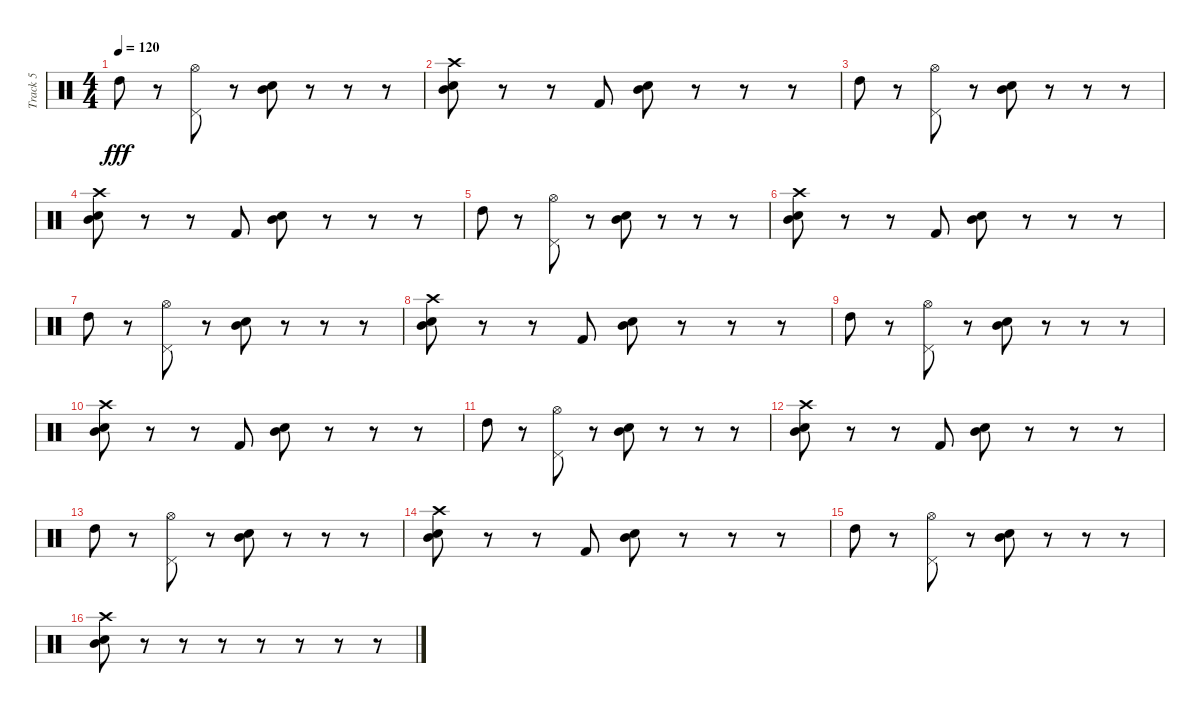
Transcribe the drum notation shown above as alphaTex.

\track ("Track 5" "Track 5") {instrument percussion}
\staff {score}
\articulation defaults
\ts (4 4)
\tempo 120
\clef neutral
\ks c "High Tom (hit)".8{dy fff}
r.8 ("Hi-Hat (open)" "Pedal Hi-Hat (hit)").8 r.8 ("Mid Tom (hit)" "Snare (hit) 2").8 r.8 r.8 r.8 |
("Crash high (hit)" "Mid Tom (hit)" "Snare (hit) 2").8 r.8 r.8 "Kick (hit) 2".8 ("Mid Tom (hit)" "Snare (hit) 2").8 r.8 r.8 r.8 |
"High Tom (hit)".8 r.8 ("Hi-Hat (open)" "Pedal Hi-Hat (hit)").8 r.8 ("Mid Tom (hit)" "Snare (hit) 2").8 r.8 r.8 r.8 |
("Crash high (hit)" "Mid Tom (hit)" "Snare (hit) 2").8 r.8 r.8 "Kick (hit) 2".8 ("Mid Tom (hit)" "Snare (hit) 2").8 r.8 r.8 r.8 |
"High Tom (hit)".8 r.8 ("Hi-Hat (open)" "Pedal Hi-Hat (hit)").8 r.8 ("Mid Tom (hit)" "Snare (hit) 2").8 r.8 r.8 r.8 |
("Crash high (hit)" "Mid Tom (hit)" "Snare (hit) 2").8 r.8 r.8 "Kick (hit) 2".8 ("Mid Tom (hit)" "Snare (hit) 2").8 r.8 r.8 r.8 |
"High Tom (hit)".8 r.8 ("Hi-Hat (open)" "Pedal Hi-Hat (hit)").8 r.8 ("Mid Tom (hit)" "Snare (hit) 2").8 r.8 r.8 r.8 |
("Crash high (hit)" "Mid Tom (hit)" "Snare (hit) 2").8 r.8 r.8 "Kick (hit) 2".8 ("Mid Tom (hit)" "Snare (hit) 2").8 r.8 r.8 r.8 |
"High Tom (hit)".8 r.8 ("Hi-Hat (open)" "Pedal Hi-Hat (hit)").8 r.8 ("Mid Tom (hit)" "Snare (hit) 2").8 r.8 r.8 r.8 |
("Crash high (hit)" "Mid Tom (hit)" "Snare (hit) 2").8 r.8 r.8 "Kick (hit) 2".8 ("Mid Tom (hit)" "Snare (hit) 2").8 r.8 r.8 r.8 |
"High Tom (hit)".8 r.8 ("Hi-Hat (open)" "Pedal Hi-Hat (hit)").8 r.8 ("Mid Tom (hit)" "Snare (hit) 2").8 r.8 r.8 r.8 |
("Crash high (hit)" "Mid Tom (hit)" "Snare (hit) 2").8 r.8 r.8 "Kick (hit) 2".8 ("Mid Tom (hit)" "Snare (hit) 2").8 r.8 r.8 r.8 |
"High Tom (hit)".8 r.8 ("Hi-Hat (open)" "Pedal Hi-Hat (hit)").8 r.8 ("Mid Tom (hit)" "Snare (hit) 2").8 r.8 r.8 r.8 |
("Crash high (hit)" "Mid Tom (hit)" "Snare (hit) 2").8 r.8 r.8 "Kick (hit) 2".8 ("Mid Tom (hit)" "Snare (hit) 2").8 r.8 r.8 r.8 |
"High Tom (hit)".8 r.8 ("Hi-Hat (open)" "Pedal Hi-Hat (hit)").8 r.8 ("Mid Tom (hit)" "Snare (hit) 2").8 r.8 r.8 r.8 |
("Crash high (hit)" "Mid Tom (hit)" "Snare (hit) 2").8 r.8 r.8 r.8 r.8 r.8 r.8 r.8
